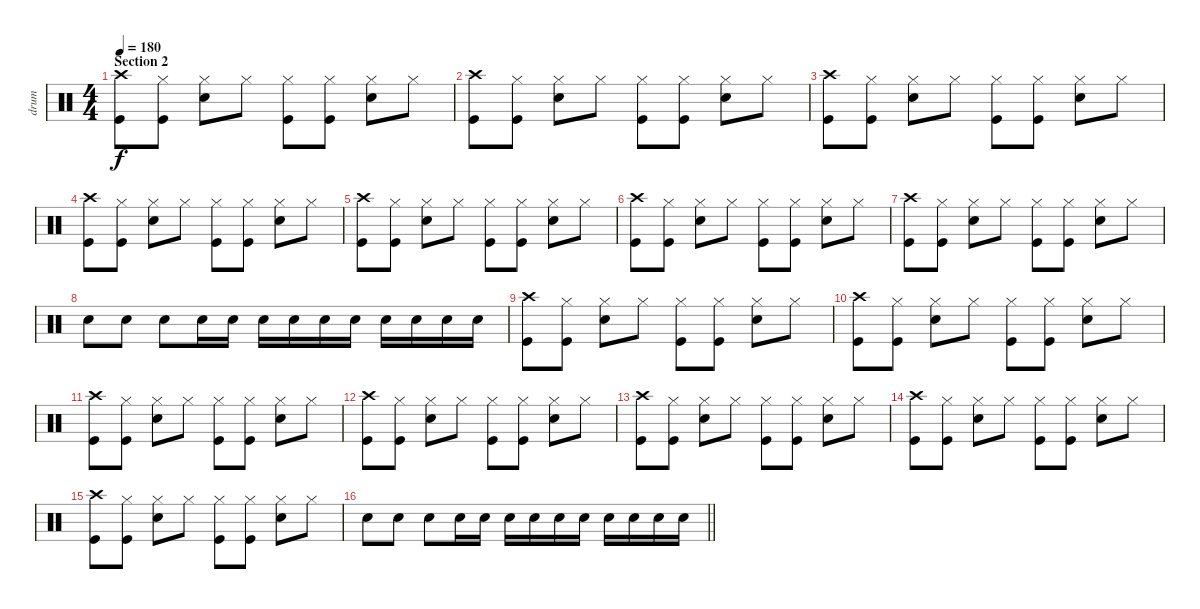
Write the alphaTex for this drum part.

\track ("drum" "drum") {instrument percussion}
\staff {score}
\articulation defaults
\ts (4 4)
\section ("" "Section 2")
\tempo 180
\clef neutral
\ks c
("Crash high (hit)" "Kick (hit)").8{dy f} ("Kick (hit)" "Hi-Hat (closed)").8 ("Snare (hit) 2" "Hi-Hat (closed)").8 "Hi-Hat (closed)".8 ("Kick (hit)" "Hi-Hat (closed)").8 ("Kick (hit)" "Hi-Hat (closed)").8 ("Snare (hit) 2" "Hi-Hat (closed)").8 "Hi-Hat (closed)".8 |
("Crash high (hit)" "Kick (hit)").8 ("Kick (hit)" "Hi-Hat (closed)").8 ("Snare (hit) 2" "Hi-Hat (closed)").8 "Hi-Hat (closed)".8 ("Kick (hit)" "Hi-Hat (closed)").8 ("Kick (hit)" "Hi-Hat (closed)").8 ("Snare (hit) 2" "Hi-Hat (closed)").8 "Hi-Hat (closed)".8 |
("Crash high (hit)" "Kick (hit)").8 ("Kick (hit)" "Hi-Hat (closed)").8 ("Snare (hit) 2" "Hi-Hat (closed)").8 "Hi-Hat (closed)".8 ("Kick (hit)" "Hi-Hat (closed)").8 ("Kick (hit)" "Hi-Hat (closed)").8 ("Snare (hit) 2" "Hi-Hat (closed)").8 "Hi-Hat (closed)".8 |
("Crash high (hit)" "Kick (hit)").8 ("Kick (hit)" "Hi-Hat (closed)").8 ("Snare (hit) 2" "Hi-Hat (closed)").8 "Hi-Hat (closed)".8 ("Kick (hit)" "Hi-Hat (closed)").8 ("Kick (hit)" "Hi-Hat (closed)").8 ("Snare (hit) 2" "Hi-Hat (closed)").8 "Hi-Hat (closed)".8 |
("Crash high (hit)" "Kick (hit)").8 ("Kick (hit)" "Hi-Hat (closed)").8 ("Snare (hit) 2" "Hi-Hat (closed)").8 "Hi-Hat (closed)".8 ("Kick (hit)" "Hi-Hat (closed)").8 ("Kick (hit)" "Hi-Hat (closed)").8 ("Snare (hit) 2" "Hi-Hat (closed)").8 "Hi-Hat (closed)".8 |
("Crash high (hit)" "Kick (hit)").8 ("Kick (hit)" "Hi-Hat (closed)").8 ("Snare (hit) 2" "Hi-Hat (closed)").8 "Hi-Hat (closed)".8 ("Kick (hit)" "Hi-Hat (closed)").8 ("Kick (hit)" "Hi-Hat (closed)").8 ("Snare (hit) 2" "Hi-Hat (closed)").8 "Hi-Hat (closed)".8 |
("Crash high (hit)" "Kick (hit)").8 ("Kick (hit)" "Hi-Hat (closed)").8 ("Snare (hit) 2" "Hi-Hat (closed)").8 "Hi-Hat (closed)".8 ("Kick (hit)" "Hi-Hat (closed)").8 ("Kick (hit)" "Hi-Hat (closed)").8 ("Snare (hit) 2" "Hi-Hat (closed)").8 "Hi-Hat (closed)".8 |
"Snare (hit) 2".8 "Snare (hit) 2".8 "Snare (hit) 2".8 "Snare (hit) 2".16 "Snare (hit) 2".16 "Snare (hit) 2".16 "Snare (hit) 2".16 "Snare (hit) 2".16 "Snare (hit) 2".16 "Snare (hit) 2".16 "Snare (hit) 2".16 "Snare (hit) 2".16 "Snare (hit) 2".16 |
("Crash high (hit)" "Kick (hit)").8 ("Kick (hit)" "Hi-Hat (closed)").8 ("Snare (hit) 2" "Hi-Hat (closed)").8 "Hi-Hat (closed)".8 ("Kick (hit)" "Hi-Hat (closed)").8 ("Kick (hit)" "Hi-Hat (closed)").8 ("Snare (hit) 2" "Hi-Hat (closed)").8 "Hi-Hat (closed)".8 |
("Crash high (hit)" "Kick (hit)").8 ("Kick (hit)" "Hi-Hat (closed)").8 ("Snare (hit) 2" "Hi-Hat (closed)").8 "Hi-Hat (closed)".8 ("Kick (hit)" "Hi-Hat (closed)").8 ("Kick (hit)" "Hi-Hat (closed)").8 ("Snare (hit) 2" "Hi-Hat (closed)").8 "Hi-Hat (closed)".8 |
("Crash high (hit)" "Kick (hit)").8 ("Kick (hit)" "Hi-Hat (closed)").8 ("Snare (hit) 2" "Hi-Hat (closed)").8 "Hi-Hat (closed)".8 ("Kick (hit)" "Hi-Hat (closed)").8 ("Kick (hit)" "Hi-Hat (closed)").8 ("Snare (hit) 2" "Hi-Hat (closed)").8 "Hi-Hat (closed)".8 |
("Crash high (hit)" "Kick (hit)").8 ("Kick (hit)" "Hi-Hat (closed)").8 ("Snare (hit) 2" "Hi-Hat (closed)").8 "Hi-Hat (closed)".8 ("Kick (hit)" "Hi-Hat (closed)").8 ("Kick (hit)" "Hi-Hat (closed)").8 ("Snare (hit) 2" "Hi-Hat (closed)").8 "Hi-Hat (closed)".8 |
("Crash high (hit)" "Kick (hit)").8 ("Kick (hit)" "Hi-Hat (closed)").8 ("Snare (hit) 2" "Hi-Hat (closed)").8 "Hi-Hat (closed)".8 ("Kick (hit)" "Hi-Hat (closed)").8 ("Kick (hit)" "Hi-Hat (closed)").8 ("Snare (hit) 2" "Hi-Hat (closed)").8 "Hi-Hat (closed)".8 |
("Crash high (hit)" "Kick (hit)").8 ("Kick (hit)" "Hi-Hat (closed)").8 ("Snare (hit) 2" "Hi-Hat (closed)").8 "Hi-Hat (closed)".8 ("Kick (hit)" "Hi-Hat (closed)").8 ("Kick (hit)" "Hi-Hat (closed)").8 ("Snare (hit) 2" "Hi-Hat (closed)").8 "Hi-Hat (closed)".8 |
("Crash high (hit)" "Kick (hit)").8 ("Kick (hit)" "Hi-Hat (closed)").8 ("Snare (hit) 2" "Hi-Hat (closed)").8 "Hi-Hat (closed)".8 ("Kick (hit)" "Hi-Hat (closed)").8 ("Kick (hit)" "Hi-Hat (closed)").8 ("Snare (hit) 2" "Hi-Hat (closed)").8 "Hi-Hat (closed)".8 |
\barLineRight lightlight "Snare (hit) 2".8 "Snare (hit) 2".8 "Snare (hit) 2".8 "Snare (hit) 2".16 "Snare (hit) 2".16 "Snare (hit) 2".16 "Snare (hit) 2".16 "Snare (hit) 2".16 "Snare (hit) 2".16 "Snare (hit) 2".16 "Snare (hit) 2".16 "Snare (hit) 2".16 "Snare (hit) 2".16
